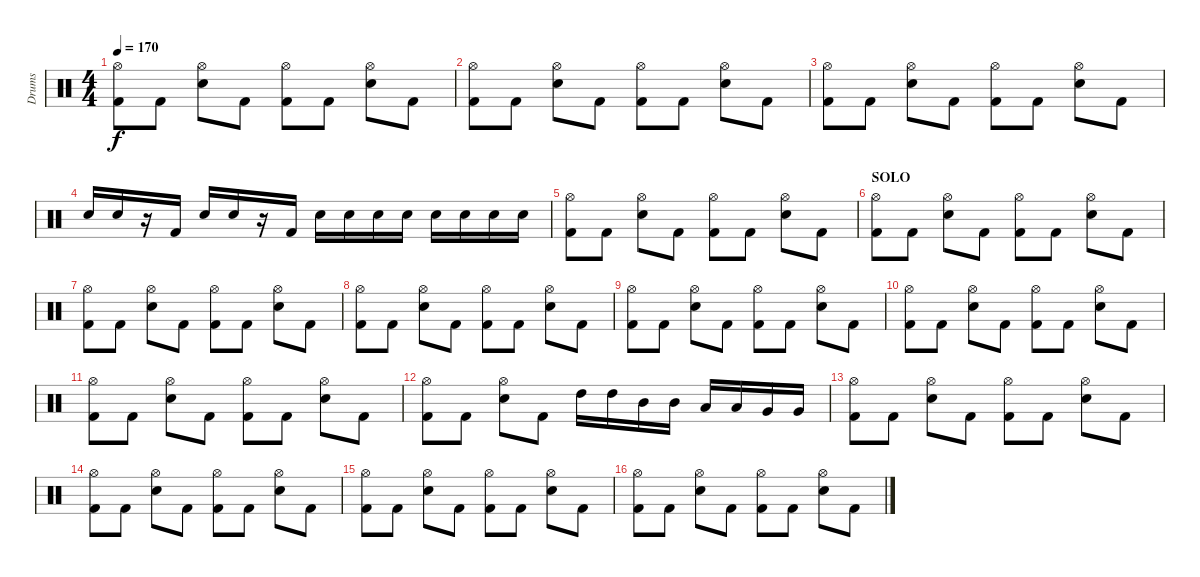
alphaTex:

\track ("Drums" "Drums") {instrument percussion}
\staff {score}
\articulation defaults
\ts (4 4)
\tempo 170
\clef neutral
\ks c
("Hi-Hat (open)" "Kick (hit) 2").8{dy f} "Kick (hit) 2".8 ("Hi-Hat (open)" "Snare (hit) 2").8 "Kick (hit) 2".8 ("Hi-Hat (open)" "Kick (hit) 2").8 "Kick (hit) 2".8 ("Hi-Hat (open)" "Snare (hit) 2").8 "Kick (hit) 2".8 |
("Hi-Hat (open)" "Kick (hit) 2").8 "Kick (hit) 2".8 ("Hi-Hat (open)" "Snare (hit) 2").8 "Kick (hit) 2".8 ("Hi-Hat (open)" "Kick (hit) 2").8 "Kick (hit) 2".8 ("Hi-Hat (open)" "Snare (hit) 2").8 "Kick (hit) 2".8 |
("Hi-Hat (open)" "Kick (hit) 2").8 "Kick (hit) 2".8 ("Hi-Hat (open)" "Snare (hit) 2").8 "Kick (hit) 2".8 ("Hi-Hat (open)" "Kick (hit) 2").8 "Kick (hit) 2".8 ("Hi-Hat (open)" "Snare (hit) 2").8 "Kick (hit) 2".8 |
"Snare (hit) 2".16 "Snare (hit) 2".16 r.16 "Kick (hit) 2".16 "Snare (hit) 2".16 "Snare (hit) 2".16 r.16 "Kick (hit) 2".16 "Snare (hit) 2".16 "Snare (hit) 2".16 "Snare (hit) 2".16 "Snare (hit) 2".16 "Snare (hit) 2".16 "Snare (hit) 2".16 "Snare (hit) 2".16 "Snare (hit) 2".16 |
("Hi-Hat (open)" "Kick (hit) 2").8 "Kick (hit) 2".8 ("Hi-Hat (open)" "Snare (hit) 2").8 "Kick (hit) 2".8 ("Hi-Hat (open)" "Kick (hit) 2").8 "Kick (hit) 2".8 ("Hi-Hat (open)" "Snare (hit) 2").8 "Kick (hit) 2".8 |
\section ("" "SOLO")
("Hi-Hat (open)" "Kick (hit) 2").8 "Kick (hit) 2".8 ("Hi-Hat (open)" "Snare (hit) 2").8 "Kick (hit) 2".8 ("Hi-Hat (open)" "Kick (hit) 2").8 "Kick (hit) 2".8 ("Hi-Hat (open)" "Snare (hit) 2").8 "Kick (hit) 2".8 |
("Hi-Hat (open)" "Kick (hit) 2").8 "Kick (hit) 2".8 ("Hi-Hat (open)" "Snare (hit) 2").8 "Kick (hit) 2".8 ("Hi-Hat (open)" "Kick (hit) 2").8 "Kick (hit) 2".8 ("Hi-Hat (open)" "Snare (hit) 2").8 "Kick (hit) 2".8 |
("Hi-Hat (open)" "Kick (hit) 2").8 "Kick (hit) 2".8 ("Hi-Hat (open)" "Snare (hit) 2").8 "Kick (hit) 2".8 ("Hi-Hat (open)" "Kick (hit) 2").8 "Kick (hit) 2".8 ("Hi-Hat (open)" "Snare (hit) 2").8 "Kick (hit) 2".8 |
("Hi-Hat (open)" "Kick (hit) 2").8 "Kick (hit) 2".8 ("Hi-Hat (open)" "Snare (hit) 2").8 "Kick (hit) 2".8 ("Hi-Hat (open)" "Kick (hit) 2").8 "Kick (hit) 2".8 ("Hi-Hat (open)" "Snare (hit) 2").8 "Kick (hit) 2".8 |
("Hi-Hat (open)" "Kick (hit) 2").8 "Kick (hit) 2".8 ("Hi-Hat (open)" "Snare (hit) 2").8 "Kick (hit) 2".8 ("Hi-Hat (open)" "Kick (hit) 2").8 "Kick (hit) 2".8 ("Hi-Hat (open)" "Snare (hit) 2").8 "Kick (hit) 2".8 |
("Hi-Hat (open)" "Kick (hit) 2").8 "Kick (hit) 2".8 ("Hi-Hat (open)" "Snare (hit) 2").8 "Kick (hit) 2".8 ("Hi-Hat (open)" "Kick (hit) 2").8 "Kick (hit) 2".8 ("Hi-Hat (open)" "Snare (hit) 2").8 "Kick (hit) 2".8 |
("Hi-Hat (open)" "Kick (hit) 2").8 "Kick (hit) 2".8 ("Hi-Hat (open)" "Snare (hit) 2").8 "Kick (hit) 2".8 "High Tom (hit)".16 "High Tom (hit)".16 "Mid Tom (hit)".16 "Mid Tom (hit)".16 "Low Tom (hit)".16 "Low Tom (hit)".16 "Very Low Tom (hit)".16 "Very Low Tom (hit)".16 |
("Hi-Hat (open)" "Kick (hit) 2").8 "Kick (hit) 2".8 ("Hi-Hat (open)" "Snare (hit) 2").8 "Kick (hit) 2".8 ("Hi-Hat (open)" "Kick (hit) 2").8 "Kick (hit) 2".8 ("Hi-Hat (open)" "Snare (hit) 2").8 "Kick (hit) 2".8 |
("Hi-Hat (open)" "Kick (hit) 2").8 "Kick (hit) 2".8 ("Hi-Hat (open)" "Snare (hit) 2").8 "Kick (hit) 2".8 ("Hi-Hat (open)" "Kick (hit) 2").8 "Kick (hit) 2".8 ("Hi-Hat (open)" "Snare (hit) 2").8 "Kick (hit) 2".8 |
("Hi-Hat (open)" "Kick (hit) 2").8 "Kick (hit) 2".8 ("Hi-Hat (open)" "Snare (hit) 2").8 "Kick (hit) 2".8 ("Hi-Hat (open)" "Kick (hit) 2").8 "Kick (hit) 2".8 ("Hi-Hat (open)" "Snare (hit) 2").8 "Kick (hit) 2".8 |
("Hi-Hat (open)" "Kick (hit) 2").8 "Kick (hit) 2".8 ("Hi-Hat (open)" "Snare (hit) 2").8 "Kick (hit) 2".8 ("Hi-Hat (open)" "Kick (hit) 2").8 "Kick (hit) 2".8 ("Hi-Hat (open)" "Snare (hit) 2").8 "Kick (hit) 2".8
